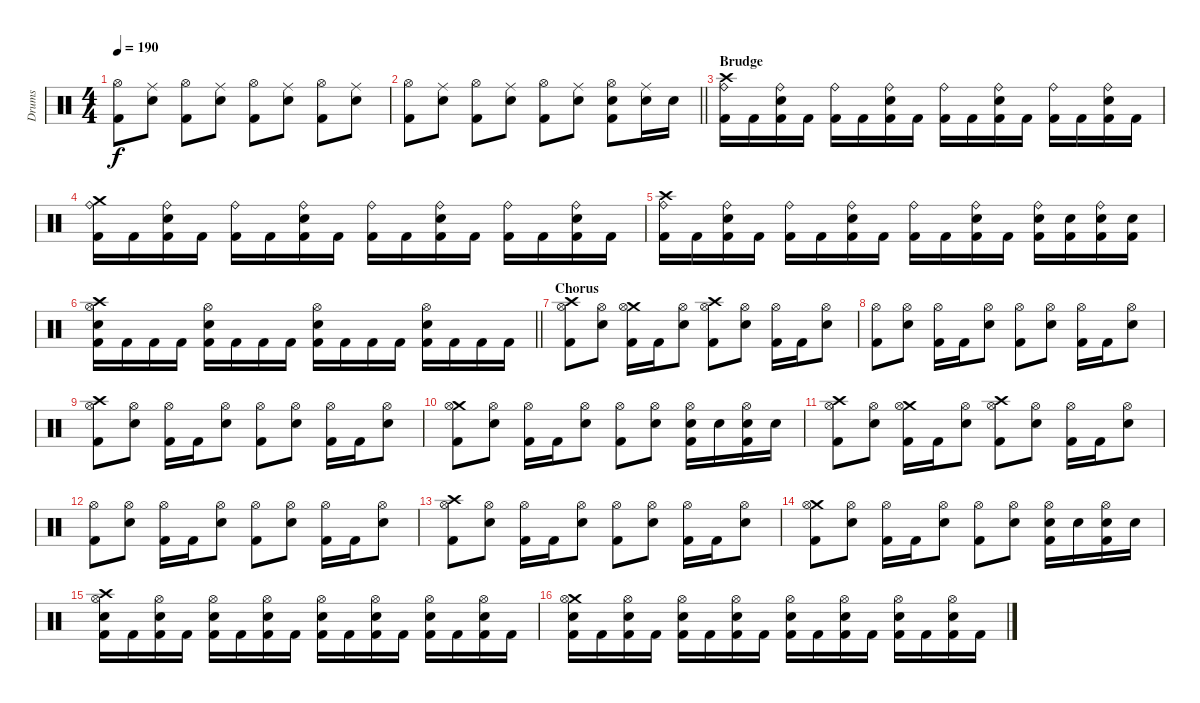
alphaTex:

\track ("Drums" "Drums") {instrument percussion}
\staff {score}
\articulation defaults
\ts (4 4)
\tempo 190
\clef neutral
\ks c
("Hi-Hat (open)" "Kick (hit) 2").8{dy f} ("Ride (middle)" "Snare (hit) 2").8 ("Hi-Hat (open)" "Kick (hit) 2").8 ("Ride (middle)" "Snare (hit) 2").8 ("Hi-Hat (open)" "Kick (hit) 2").8 ("Ride (middle)" "Snare (hit) 2").8 ("Hi-Hat (open)" "Kick (hit) 2").8 ("Ride (middle)" "Snare (hit) 2").8 |
\barLineRight lightlight
("Hi-Hat (open)" "Kick (hit) 2").8 ("Ride (middle)" "Snare (hit) 2").8 ("Hi-Hat (open)" "Kick (hit) 2").8 ("Ride (middle)" "Snare (hit) 2").8 ("Hi-Hat (open)" "Kick (hit) 2").8 ("Ride (middle)" "Snare (hit) 2").8 ("Hi-Hat (open)" "Snare (hit) 2" "Kick (hit) 2").8 ("Ride (middle)" "Snare (hit) 2").16 "Snare (hit) 2".16 |
\section ("" "Brudge")
("Crash high (hit)" "Ride (bell)" "Kick (hit) 2").16 "Kick (hit) 2".16 ("Ride (bell)" "Snare (hit) 2" "Kick (hit) 2").16 "Kick (hit) 2".16 ("Ride (bell)" "Kick (hit) 2").16 "Kick (hit) 2".16 ("Ride (bell)" "Snare (hit) 2" "Kick (hit) 2").16 "Kick (hit) 2".16 ("Ride (bell)" "Kick (hit) 2").16 "Kick (hit) 2".16 ("Ride (bell)" "Snare (hit) 2" "Kick (hit) 2").16 "Kick (hit) 2".16 ("Ride (bell)" "Kick (hit) 2").16 "Kick (hit) 2".16 ("Ride (bell)" "Snare (hit) 2" "Kick (hit) 2").16 "Kick (hit) 2".16 |
("Crash medium (hit)" "Ride (bell)" "Kick (hit) 2").16 "Kick (hit) 2".16 ("Ride (bell)" "Snare (hit) 2" "Kick (hit) 2").16 "Kick (hit) 2".16 ("Ride (bell)" "Kick (hit) 2").16 "Kick (hit) 2".16 ("Ride (bell)" "Snare (hit) 2" "Kick (hit) 2").16 "Kick (hit) 2".16 ("Ride (bell)" "Kick (hit) 2").16 "Kick (hit) 2".16 ("Ride (bell)" "Snare (hit) 2" "Kick (hit) 2").16 "Kick (hit) 2".16 ("Ride (bell)" "Kick (hit) 2").16 "Kick (hit) 2".16 ("Ride (bell)" "Snare (hit) 2" "Kick (hit) 2").16 "Kick (hit) 2".16 |
("Crash high (hit)" "Ride (bell)" "Kick (hit) 2").16 "Kick (hit) 2".16 ("Ride (bell)" "Snare (hit) 2" "Kick (hit) 2").16 "Kick (hit) 2".16 ("Ride (bell)" "Kick (hit) 2").16 "Kick (hit) 2".16 ("Ride (bell)" "Snare (hit) 2" "Kick (hit) 2").16 "Kick (hit) 2".16 ("Ride (bell)" "Kick (hit) 2").16 "Kick (hit) 2".16 ("Ride (bell)" "Snare (hit) 2" "Kick (hit) 2").16 "Kick (hit) 2".16 ("Ride (bell)" "Snare (hit) 2" "Kick (hit) 2").16 ("Snare (hit) 2" "Kick (hit) 2").16 ("Ride (bell)" "Snare (hit) 2" "Kick (hit) 2").16 ("Snare (hit) 2" "Kick (hit) 2").16 |
\barLineRight lightlight
("Crash high (hit)" "Hi-Hat (open)" "Snare (hit) 2" "Kick (hit) 2").16 "Kick (hit) 2".16 "Kick (hit) 2".16 "Kick (hit) 2".16 ("Hi-Hat (open)" "Snare (hit) 2" "Kick (hit) 2").16 "Kick (hit) 2".16 "Kick (hit) 2".16 "Kick (hit) 2".16 ("Hi-Hat (open)" "Snare (hit) 2" "Kick (hit) 2").16 "Kick (hit) 2".16 "Kick (hit) 2".16 "Kick (hit) 2".16 ("Hi-Hat (open)" "Snare (hit) 2" "Kick (hit) 2").16 "Kick (hit) 2".16 "Kick (hit) 2".16 "Kick (hit) 2".16 |
\section ("" "Chorus")
("Crash high (hit)" "Hi-Hat (open)" "Kick (hit) 2").8 ("Hi-Hat (open)" "Snare (hit) 2").8 ("Crash medium (hit)" "Hi-Hat (open)" "Kick (hit) 2").16 "Kick (hit) 2".16 ("Hi-Hat (open)" "Snare (hit) 2").8 ("Crash high (hit)" "Hi-Hat (open)" "Kick (hit) 2").8 ("Hi-Hat (open)" "Snare (hit) 2").8 ("Hi-Hat (open)" "Kick (hit) 2").16 "Kick (hit) 2".16 ("Hi-Hat (open)" "Snare (hit) 2").8 |
("Hi-Hat (open)" "Kick (hit) 2").8 ("Hi-Hat (open)" "Snare (hit) 2").8 ("Hi-Hat (open)" "Kick (hit) 2").16 "Kick (hit) 2".16 ("Hi-Hat (open)" "Snare (hit) 2").8 ("Hi-Hat (open)" "Kick (hit) 2").8 ("Hi-Hat (open)" "Snare (hit) 2").8 ("Hi-Hat (open)" "Kick (hit) 2").16 "Kick (hit) 2".16 ("Hi-Hat (open)" "Snare (hit) 2").8 |
("Crash high (hit)" "Hi-Hat (open)" "Kick (hit) 2").8 ("Hi-Hat (open)" "Snare (hit) 2").8 ("Hi-Hat (open)" "Kick (hit) 2").16 "Kick (hit) 2".16 ("Hi-Hat (open)" "Snare (hit) 2").8 ("Hi-Hat (open)" "Kick (hit) 2").8 ("Hi-Hat (open)" "Snare (hit) 2").8 ("Hi-Hat (open)" "Kick (hit) 2").16 "Kick (hit) 2".16 ("Hi-Hat (open)" "Snare (hit) 2").8 |
("Crash medium (hit)" "Hi-Hat (open)" "Kick (hit) 2").8 ("Hi-Hat (open)" "Snare (hit) 2").8 ("Hi-Hat (open)" "Kick (hit) 2").16 "Kick (hit) 2".16 ("Hi-Hat (open)" "Snare (hit) 2").8 ("Hi-Hat (open)" "Kick (hit) 2").8 ("Hi-Hat (open)" "Snare (hit) 2").8 ("Hi-Hat (open)" "Snare (hit) 2" "Kick (hit) 2").16 "Snare (hit) 2".16 ("Hi-Hat (open)" "Snare (hit) 2" "Kick (hit) 2").16 "Snare (hit) 2".16 |
("Crash high (hit)" "Hi-Hat (open)" "Kick (hit) 2").8 ("Hi-Hat (open)" "Snare (hit) 2").8 ("Crash medium (hit)" "Hi-Hat (open)" "Kick (hit) 2").16 "Kick (hit) 2".16 ("Hi-Hat (open)" "Snare (hit) 2").8 ("Crash high (hit)" "Hi-Hat (open)" "Kick (hit) 2").8 ("Hi-Hat (open)" "Snare (hit) 2").8 ("Hi-Hat (open)" "Kick (hit) 2").16 "Kick (hit) 2".16 ("Hi-Hat (open)" "Snare (hit) 2").8 |
("Hi-Hat (open)" "Kick (hit) 2").8 ("Hi-Hat (open)" "Snare (hit) 2").8 ("Hi-Hat (open)" "Kick (hit) 2").16 "Kick (hit) 2".16 ("Hi-Hat (open)" "Snare (hit) 2").8 ("Hi-Hat (open)" "Kick (hit) 2").8 ("Hi-Hat (open)" "Snare (hit) 2").8 ("Hi-Hat (open)" "Kick (hit) 2").16 "Kick (hit) 2".16 ("Hi-Hat (open)" "Snare (hit) 2").8 |
("Crash high (hit)" "Hi-Hat (open)" "Kick (hit) 2").8 ("Hi-Hat (open)" "Snare (hit) 2").8 ("Hi-Hat (open)" "Kick (hit) 2").16 "Kick (hit) 2".16 ("Hi-Hat (open)" "Snare (hit) 2").8 ("Hi-Hat (open)" "Kick (hit) 2").8 ("Hi-Hat (open)" "Snare (hit) 2").8 ("Hi-Hat (open)" "Kick (hit) 2").16 "Kick (hit) 2".16 ("Hi-Hat (open)" "Snare (hit) 2").8 |
("Crash medium (hit)" "Hi-Hat (open)" "Kick (hit) 2").8 ("Hi-Hat (open)" "Snare (hit) 2").8 ("Hi-Hat (open)" "Kick (hit) 2").16 "Kick (hit) 2".16 ("Hi-Hat (open)" "Snare (hit) 2").8 ("Hi-Hat (open)" "Kick (hit) 2").8 ("Hi-Hat (open)" "Snare (hit) 2").8 ("Hi-Hat (open)" "Snare (hit) 2" "Kick (hit) 2").16 "Snare (hit) 2".16 ("Hi-Hat (open)" "Snare (hit) 2" "Kick (hit) 2").16 "Snare (hit) 2".16 |
("Crash high (hit)" "Hi-Hat (open)" "Snare (hit) 2" "Kick (hit) 2").16 "Kick (hit) 2".16 ("Hi-Hat (open)" "Snare (hit) 2" "Kick (hit) 2").16 "Kick (hit) 2".16 ("Hi-Hat (open)" "Snare (hit) 2" "Kick (hit) 2").16 "Kick (hit) 2".16 ("Hi-Hat (open)" "Snare (hit) 2" "Kick (hit) 2").16 "Kick (hit) 2".16 ("Hi-Hat (open)" "Snare (hit) 2" "Kick (hit) 2").16 "Kick (hit) 2".16 ("Hi-Hat (open)" "Snare (hit) 2" "Kick (hit) 2").16 "Kick (hit) 2".16 ("Hi-Hat (open)" "Snare (hit) 2" "Kick (hit) 2").16 "Kick (hit) 2".16 ("Hi-Hat (open)" "Snare (hit) 2" "Kick (hit) 2").16 "Kick (hit) 2".16 |
("Crash medium (hit)" "Hi-Hat (open)" "Snare (hit) 2" "Kick (hit) 2").16 "Kick (hit) 2".16 ("Hi-Hat (open)" "Snare (hit) 2" "Kick (hit) 2").16 "Kick (hit) 2".16 ("Hi-Hat (open)" "Snare (hit) 2" "Kick (hit) 2").16 "Kick (hit) 2".16 ("Hi-Hat (open)" "Snare (hit) 2" "Kick (hit) 2").16 "Kick (hit) 2".16 ("Hi-Hat (open)" "Snare (hit) 2" "Kick (hit) 2").16 "Kick (hit) 2".16 ("Hi-Hat (open)" "Snare (hit) 2" "Kick (hit) 2").16 "Kick (hit) 2".16 ("Hi-Hat (open)" "Snare (hit) 2" "Kick (hit) 2").16 "Kick (hit) 2".16 ("Hi-Hat (open)" "Snare (hit) 2" "Kick (hit) 2").16 "Kick (hit) 2".16
